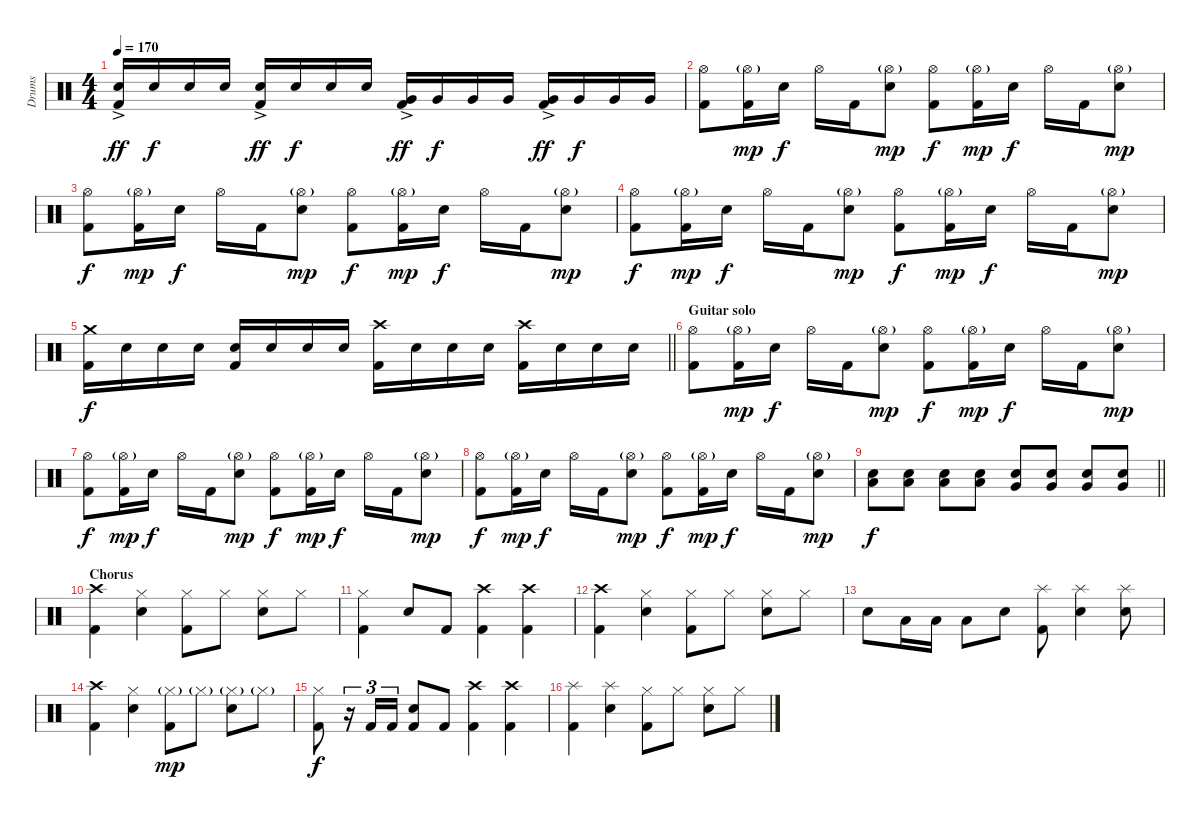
\track ("Drums" "Drums") {instrument percussion}
\staff {score}
\articulation defaults
\ts (4 4)
\tempo 170
\clef neutral
\ks c
("Snare (hit) 2"{ac} "Kick (hit) 2").16{dy ff} "Snare (hit) 2".16{dy f} "Snare (hit) 2".16 "Snare (hit) 2".16 ("Snare (hit) 2"{ac} "Kick (hit) 2").16{dy ff} "Snare (hit) 2".16{dy f} "Snare (hit) 2".16 "Snare (hit) 2".16 ("Very Low Tom (hit)"{ac} "Kick (hit) 2").16{dy ff} "Very Low Tom (hit)".16{dy f} "Very Low Tom (hit)".16 "Very Low Tom (hit)".16 ("Very Low Tom (hit)"{ac} "Kick (hit) 2").16{dy ff} "Very Low Tom (hit)".16{dy f} "Very Low Tom (hit)".16 "Very Low Tom (hit)".16 |
("Hi-Hat (open)" "Kick (hit) 2").8 ("Hi-Hat (open)"{g} "Kick (hit) 2").16{dy mp} "Snare (hit) 2".16{dy f} "Hi-Hat (open)".16 "Kick (hit) 2".16 ("Hi-Hat (open)"{g} "Snare (hit) 2").8{dy mp} ("Hi-Hat (open)" "Kick (hit) 2").8{dy f} ("Hi-Hat (open)"{g} "Kick (hit) 2").16{dy mp} "Snare (hit) 2".16{dy f} "Hi-Hat (open)".16 "Kick (hit) 2".16 ("Hi-Hat (open)"{g} "Snare (hit) 2").8{dy mp} |
("Hi-Hat (open)" "Kick (hit) 2").8{dy f} ("Hi-Hat (open)"{g} "Kick (hit) 2").16{dy mp} "Snare (hit) 2".16{dy f} "Hi-Hat (open)".16 "Kick (hit) 2".16 ("Hi-Hat (open)"{g} "Snare (hit) 2").8{dy mp} ("Hi-Hat (open)" "Kick (hit) 2").8{dy f} ("Hi-Hat (open)"{g} "Kick (hit) 2").16{dy mp} "Snare (hit) 2".16{dy f} "Hi-Hat (open)".16 "Kick (hit) 2".16 ("Hi-Hat (open)"{g} "Snare (hit) 2").8{dy mp} |
("Hi-Hat (open)" "Kick (hit) 2").8{dy f} ("Hi-Hat (open)"{g} "Kick (hit) 2").16{dy mp} "Snare (hit) 2".16{dy f} "Hi-Hat (open)".16 "Kick (hit) 2".16 ("Hi-Hat (open)"{g} "Snare (hit) 2").8{dy mp} ("Hi-Hat (open)" "Kick (hit) 2").8{dy f} ("Hi-Hat (open)"{g} "Kick (hit) 2").16{dy mp} "Snare (hit) 2".16{dy f} "Hi-Hat (open)".16 "Kick (hit) 2".16 ("Hi-Hat (open)"{g} "Snare (hit) 2").8{dy mp} |
\barLineRight lightlight
("Crash medium (hit)" "Kick (hit) 2").16{dy f} "Snare (hit) 2".16 "Snare (hit) 2".16 "Snare (hit) 2".16 ("Snare (hit) 2" "Kick (hit) 2").16 "Snare (hit) 2".16 "Snare (hit) 2".16 "Snare (hit) 2".16 ("Crash high (hit)" "Kick (hit) 2").16 "Snare (hit) 2".16 "Snare (hit) 2".16 "Snare (hit) 2".16 ("Crash high (hit)" "Kick (hit) 2").16 "Snare (hit) 2".16 "Snare (hit) 2".16 "Snare (hit) 2".16 |
\section ("" "Guitar solo")
("Hi-Hat (open)" "Kick (hit) 2").8 ("Hi-Hat (open)"{g} "Kick (hit) 2").16{dy mp} "Snare (hit) 2".16{dy f} "Hi-Hat (open)".16 "Kick (hit) 2".16 ("Hi-Hat (open)"{g} "Snare (hit) 2").8{dy mp} ("Hi-Hat (open)" "Kick (hit) 2").8{dy f} ("Hi-Hat (open)"{g} "Kick (hit) 2").16{dy mp} "Snare (hit) 2".16{dy f} "Hi-Hat (open)".16 "Kick (hit) 2".16 ("Hi-Hat (open)"{g} "Snare (hit) 2").8{dy mp} |
("Hi-Hat (open)" "Kick (hit) 2").8{dy f} ("Hi-Hat (open)"{g} "Kick (hit) 2").16{dy mp} "Snare (hit) 2".16{dy f} "Hi-Hat (open)".16 "Kick (hit) 2".16 ("Hi-Hat (open)"{g} "Snare (hit) 2").8{dy mp} ("Hi-Hat (open)" "Kick (hit) 2").8{dy f} ("Hi-Hat (open)"{g} "Kick (hit) 2").16{dy mp} "Snare (hit) 2".16{dy f} "Hi-Hat (open)".16 "Kick (hit) 2".16 ("Hi-Hat (open)"{g} "Snare (hit) 2").8{dy mp} |
("Hi-Hat (open)" "Kick (hit) 2").8{dy f} ("Hi-Hat (open)"{g} "Kick (hit) 2").16{dy mp} "Snare (hit) 2".16{dy f} "Hi-Hat (open)".16 "Kick (hit) 2".16 ("Hi-Hat (open)"{g} "Snare (hit) 2").8{dy mp} ("Hi-Hat (open)" "Kick (hit) 2").8{dy f} ("Hi-Hat (open)"{g} "Kick (hit) 2").16{dy mp} "Snare (hit) 2".16{dy f} "Hi-Hat (open)".16 "Kick (hit) 2".16 ("Hi-Hat (open)"{g} "Snare (hit) 2").8{dy mp} |
\barLineRight lightlight
("Snare (hit) 2" "Low Tom (hit)").8{dy f} ("Snare (hit) 2" "Low Tom (hit)").8 ("Snare (hit) 2" "Low Tom (hit)").8 ("Snare (hit) 2" "Low Tom (hit)").8 ("Snare (hit) 2" "Very Low Tom (hit)").8 ("Snare (hit) 2" "Very Low Tom (hit)").8 ("Snare (hit) 2" "Very Low Tom (hit)").8 ("Snare (hit) 2" "Very Low Tom (hit)").8 |
\section ("" "Chorus")
("Crash high (hit)" "Kick (hit) 2").4 ("Hi-Hat (closed)" "Snare (hit) 2").4 ("Hi-Hat (closed)" "Kick (hit) 2").8 "Hi-Hat (closed)".8 ("Hi-Hat (closed)" "Snare (hit) 2").8 "Hi-Hat (closed)".8 |
("Hi-Hat (closed)" "Kick (hit) 2").4 "Snare (hit) 2".8 "Kick (hit) 2".8 ("Crash high (hit)" "Kick (hit) 2").4 ("Crash high (hit)" "Kick (hit) 2").4 |
("Crash high (hit)" "Kick (hit) 2").4 ("Hi-Hat (closed)" "Snare (hit) 2").4 ("Hi-Hat (closed)" "Kick (hit) 2").8 "Hi-Hat (closed)".8 ("Hi-Hat (closed)" "Snare (hit) 2").8 "Hi-Hat (closed)".8 |
"Snare (hit) 2".8 "Low Tom (hit)".16 "Low Tom (hit)".16 "Low Tom (hit)".8 "Snare (hit) 2".8 ("Splash (hit)" "Kick (hit) 2").8 ("Splash (hit)" "Snare (hit) 2").4 ("Splash (hit)" "Snare (hit) 2").8 |
("Crash high (hit)" "Kick (hit) 2").4 ("Hi-Hat (closed)" "Snare (hit) 2").4 ("Hi-Hat (closed)"{g} "Kick (hit) 2").8{dy mp} "Hi-Hat (closed)"{g}.8 ("Hi-Hat (closed)"{g} "Snare (hit) 2").8 "Hi-Hat (closed)"{g}.8 |
("Hi-Hat (closed)" "Kick (hit) 2").8{dy f} r.16{tu (3 2)} "Kick (hit) 2".16{tu (3 2)} "Kick (hit) 2".16{tu (3 2)} ("Snare (hit) 2" "Kick (hit) 2").8 "Kick (hit) 2".8 ("Crash high (hit)" "Kick (hit) 2").4 ("Crash high (hit)" "Kick (hit) 2").4 |
("Splash (hit)" "Kick (hit) 2").4 ("Splash (hit)" "Snare (hit) 2").4 ("Hi-Hat (closed)" "Kick (hit) 2").8 "Hi-Hat (closed)".8 ("Hi-Hat (closed)" "Snare (hit) 2").8 "Hi-Hat (closed)".8
